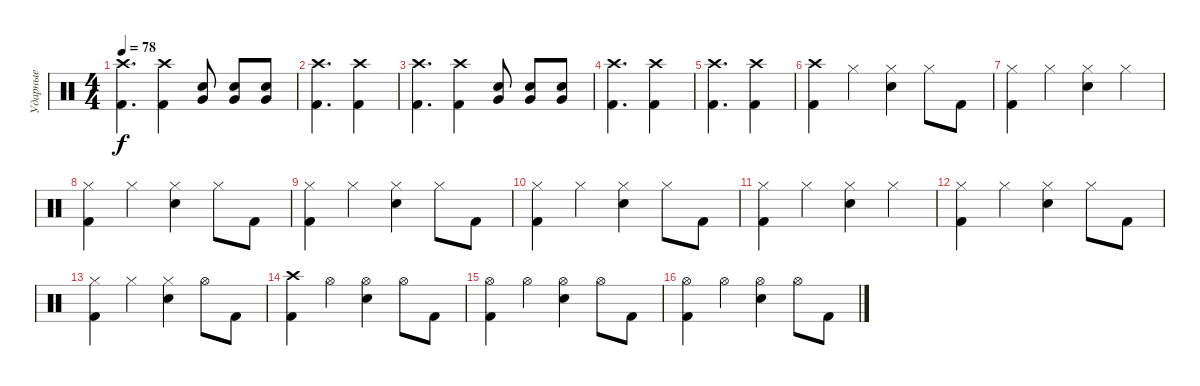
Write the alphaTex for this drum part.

\track ("Ударные" "Ударные") {instrument percussion}
\staff {score}
\articulation defaults
\ts (4 4)
\tempo 78
\clef neutral
\ks c
("Crash high (hit)" "Kick (hit) 2").4{d dy f} ("Crash high (hit)" "Kick (hit) 2").4 ("Very Low Tom (hit)" "Snare (hit) 2").8 ("Very Low Tom (hit)" "Snare (hit) 2").8 ("Very Low Tom (hit)" "Snare (hit) 2").8 |
("Crash high (hit)" "Kick (hit) 2").4{d} ("Crash high (hit)" "Kick (hit) 2").4 |
("Crash high (hit)" "Kick (hit) 2").4{d} ("Crash high (hit)" "Kick (hit) 2").4 ("Very Low Tom (hit)" "Snare (hit) 2").8 ("Very Low Tom (hit)" "Snare (hit) 2").8 ("Very Low Tom (hit)" "Snare (hit) 2").8 |
("Crash high (hit)" "Kick (hit) 2").4{d} ("Crash high (hit)" "Kick (hit) 2").4 |
("Crash high (hit)" "Kick (hit) 2").4{d} ("Crash high (hit)" "Kick (hit) 2").4 |
("Crash high (hit)" "Kick (hit) 2").4 "Hi-Hat (closed)".4 ("Hi-Hat (closed)" "Snare (hit) 2").4 "Hi-Hat (closed)".8 "Kick (hit) 2".8 |
("Hi-Hat (closed)" "Kick (hit) 2").4 "Hi-Hat (closed)".4 ("Hi-Hat (closed)" "Snare (hit) 2").4 "Hi-Hat (closed)".4 |
("Hi-Hat (closed)" "Kick (hit) 2").4 "Hi-Hat (closed)".4 ("Hi-Hat (closed)" "Snare (hit) 2").4 "Hi-Hat (closed)".8 "Kick (hit) 2".8 |
("Hi-Hat (closed)" "Kick (hit) 2").4 "Hi-Hat (closed)".4 ("Hi-Hat (closed)" "Snare (hit) 2").4 "Hi-Hat (closed)".8 "Kick (hit) 2".8 |
("Hi-Hat (closed)" "Kick (hit) 2").4 "Hi-Hat (closed)".4 ("Hi-Hat (closed)" "Snare (hit) 2").4 "Hi-Hat (closed)".8 "Kick (hit) 2".8 |
("Hi-Hat (closed)" "Kick (hit) 2").4 "Hi-Hat (closed)".4 ("Hi-Hat (closed)" "Snare (hit) 2").4 "Hi-Hat (closed)".4 |
("Hi-Hat (closed)" "Kick (hit) 2").4 "Hi-Hat (closed)".4 ("Hi-Hat (closed)" "Snare (hit) 2").4 "Hi-Hat (closed)".8 "Kick (hit) 2".8 |
("Hi-Hat (closed)" "Kick (hit) 2").4 "Hi-Hat (closed)".4 ("Hi-Hat (closed)" "Snare (hit) 2").4 "Hi-Hat (open)".8 "Kick (hit) 2".8 |
("Crash high (hit)" "Kick (hit) 2").4 "Hi-Hat (open)".4 ("Hi-Hat (open)" "Snare (hit) 2").4 "Hi-Hat (open)".8 "Kick (hit) 2".8 |
("Hi-Hat (open)" "Kick (hit) 2").4 "Hi-Hat (open)".4 ("Hi-Hat (open)" "Snare (hit) 2").4 "Hi-Hat (open)".8 "Kick (hit) 2".8 |
("Hi-Hat (open)" "Kick (hit) 2").4 "Hi-Hat (open)".4 ("Hi-Hat (open)" "Snare (hit) 2").4 "Hi-Hat (open)".8 "Kick (hit) 2".8
